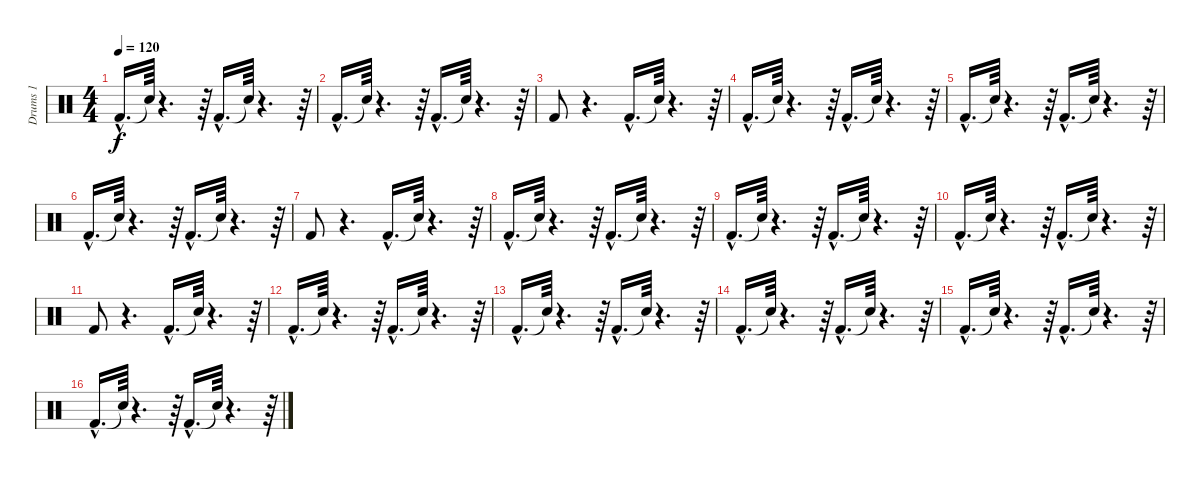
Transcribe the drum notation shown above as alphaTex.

\track ("Drums 1" "Drums 1") {instrument percussion}
\staff {score}
\articulation defaults
\ts (4 4)
\tempo 120
\clef neutral
\ks c "Kick (hit) 2"{hac}.16{d dy f} "Snare (hit)"{t}.64
r.4{d} r.64 "Kick (hit) 2"{hac}.16{d} "Snare (hit)"{t}.64 r.4{d} r.64 |
"Kick (hit) 2"{hac}.16{d} "Snare (hit)"{t}.64 r.4{d} r.64 "Kick (hit) 2"{hac}.16{d} "Snare (hit)"{t}.64 r.4{d} r.64 |
"Kick (hit) 2".8 r.4{d} "Kick (hit) 2"{hac}.16{d} "Snare (hit)"{t}.64 r.4{d} r.64 |
"Kick (hit) 2"{hac}.16{d} "Snare (hit)"{t}.64 r.4{d} r.64 "Kick (hit) 2"{hac}.16{d} "Snare (hit)"{t}.64 r.4{d} r.64 |
"Kick (hit) 2"{hac}.16{d} "Snare (hit)"{t}.64 r.4{d} r.64 "Kick (hit) 2"{hac}.16{d} "Snare (hit)"{t}.64 r.4{d} r.64 |
"Kick (hit) 2"{hac}.16{d} "Snare (hit)"{t}.64 r.4{d} r.64 "Kick (hit) 2"{hac}.16{d} "Snare (hit)"{t}.64 r.4{d} r.64 |
"Kick (hit) 2".8 r.4{d} "Kick (hit) 2"{hac}.16{d} "Snare (hit)"{t}.64 r.4{d} r.64 |
"Kick (hit) 2"{hac}.16{d} "Snare (hit)"{t}.64 r.4{d} r.64 "Kick (hit) 2"{hac}.16{d} "Snare (hit)"{t}.64 r.4{d} r.64 |
"Kick (hit) 2"{hac}.16{d} "Snare (hit)"{t}.64 r.4{d} r.64 "Kick (hit) 2"{hac}.16{d} "Snare (hit)"{t}.64 r.4{d} r.64 |
"Kick (hit) 2"{hac}.16{d} "Snare (hit)"{t}.64 r.4{d} r.64 "Kick (hit) 2"{hac}.16{d} "Snare (hit)"{t}.64 r.4{d} r.64 |
"Kick (hit) 2".8 r.4{d} "Kick (hit) 2"{hac}.16{d} "Snare (hit)"{t}.64 r.4{d} r.64 |
"Kick (hit) 2"{hac}.16{d} "Snare (hit)"{t}.64 r.4{d} r.64 "Kick (hit) 2"{hac}.16{d} "Snare (hit)"{t}.64 r.4{d} r.64 |
"Kick (hit) 2"{hac}.16{d} "Snare (hit)"{t}.64 r.4{d} r.64 "Kick (hit) 2"{hac}.16{d} "Snare (hit)"{t}.64 r.4{d} r.64 |
"Kick (hit) 2"{hac}.16{d} "Snare (hit)"{t}.64 r.4{d} r.64 "Kick (hit) 2"{hac}.16{d} "Snare (hit)"{t}.64 r.4{d} r.64 |
"Kick (hit) 2"{hac}.16{d} "Snare (hit)"{t}.64 r.4{d} r.64 "Kick (hit) 2"{hac}.16{d} "Snare (hit)"{t}.64 r.4{d} r.64 |
"Kick (hit) 2"{hac}.16{d} "Snare (hit)"{t}.64 r.4{d} r.64 "Kick (hit) 2"{hac}.16{d} "Snare (hit)"{t}.64 r.4{d} r.64
